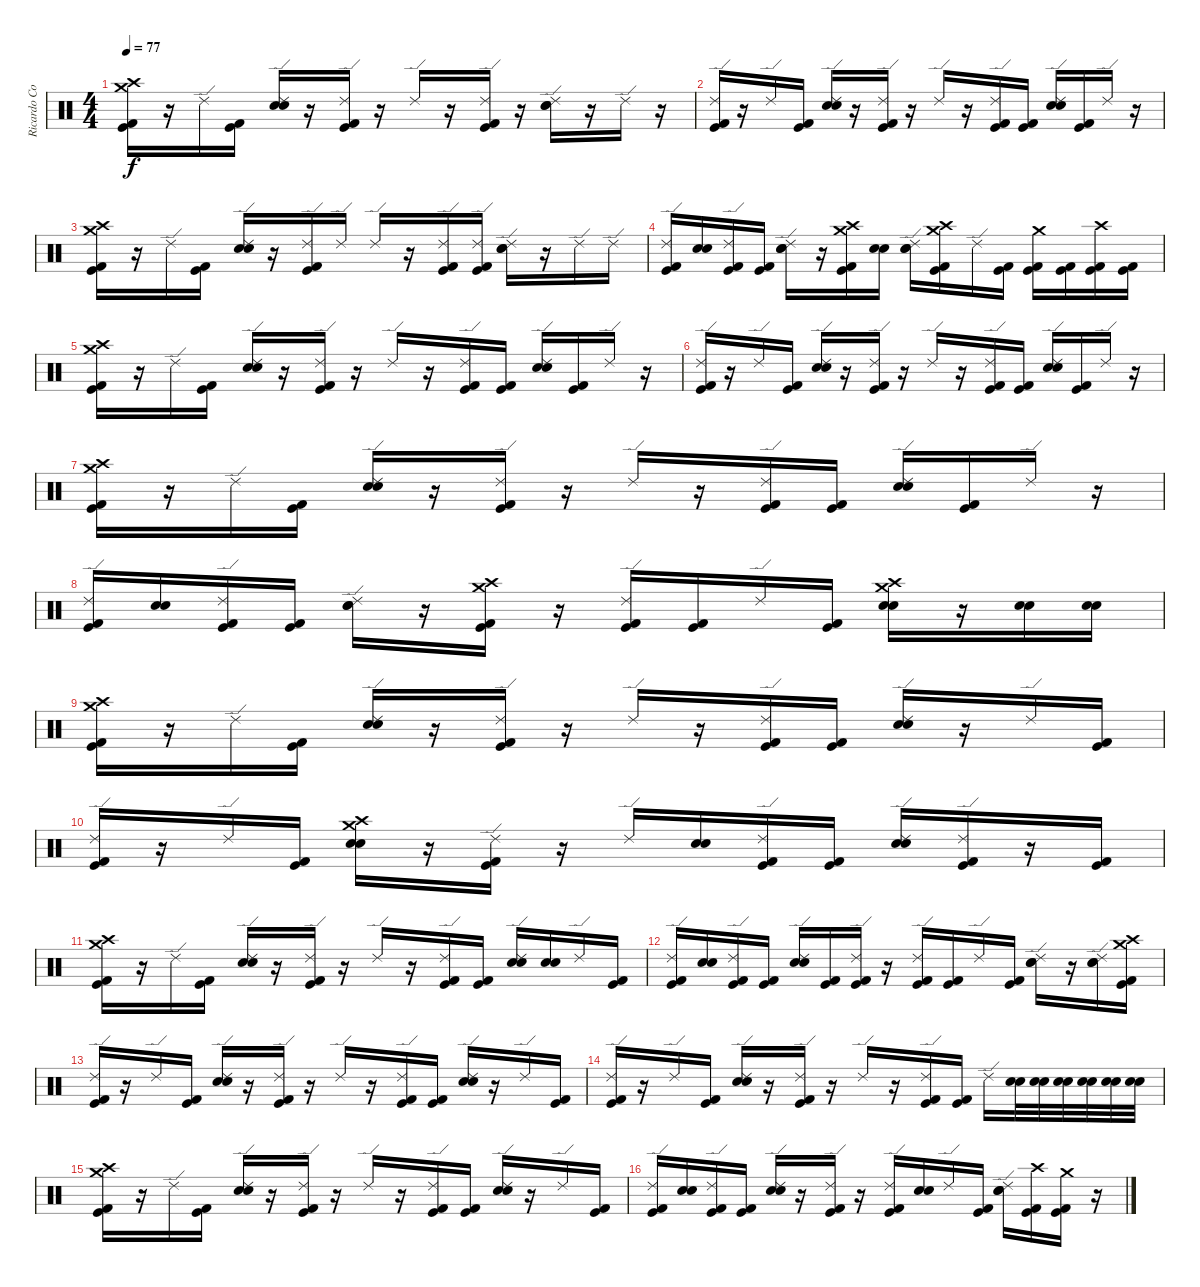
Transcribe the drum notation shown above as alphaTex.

\track ("Ricardo Confessori" "Ricardo Co") {instrument percussion}
\staff {score}
\articulation defaults
\ts (4 4)
\tempo 77
\clef neutral
\ks c
("Kick (hit) 2" "Kick (hit)" "Crash high (hit)" "Crash medium (hit)").16{dy f} r.16 "Ride (edge) 2".16 ("Kick (hit) 2" "Kick (hit)").16 ("Electric Snare (hit)" "Snare (hit) 2" "Ride (edge) 2").16 r.16 ("Kick (hit) 2" "Kick (hit)" "Ride (edge) 2").16 r.16 "Ride (edge) 2".16 r.16 ("Kick (hit) 2" "Kick (hit)" "Ride (edge) 2").16 r.16 ("Electric Snare (hit)" "Snare (hit) 2" "Ride (edge) 2").16 r.16 "Ride (edge) 2".16 r.16 |
("Kick (hit) 2" "Kick (hit)" "Ride (edge) 2").16 r.16 "Ride (edge) 2".16 ("Kick (hit) 2" "Kick (hit)").16 ("Electric Snare (hit)" "Snare (hit) 2" "Ride (edge) 2").16 r.16 ("Kick (hit) 2" "Kick (hit)" "Ride (edge) 2").16 r.16 "Ride (edge) 2".16 r.16 ("Kick (hit) 2" "Kick (hit)" "Ride (edge) 2").16 ("Kick (hit) 2" "Kick (hit)").16 ("Electric Snare (hit)" "Snare (hit) 2" "Ride (edge) 2").16 ("Kick (hit) 2" "Kick (hit)").16 "Ride (edge) 2".16 r.16 |
("Kick (hit)" "Kick (hit) 2" "Crash high (hit)" "Crash medium (hit)").16 r.16 "Ride (edge) 2".16 ("Kick (hit) 2" "Kick (hit)").16 ("Snare (hit) 2" "Electric Snare (hit)" "Ride (edge) 2").16 r.16 ("Kick (hit)" "Kick (hit) 2" "Ride (edge) 2").16 "Ride (edge) 2".16 "Ride (edge) 2".16 r.16 ("Kick (hit) 2" "Kick (hit)" "Ride (edge) 2").16 ("Kick (hit) 2" "Kick (hit)" "Ride (edge) 2").16 ("Electric Snare (hit)" "Snare (hit) 2" "Ride (edge) 2").16 r.16 "Ride (edge) 2".16 "Ride (edge) 2".16 |
("Kick (hit) 2" "Kick (hit)" "Ride (edge) 2").16 ("Electric Snare (hit)" "Snare (hit) 2").16 ("Kick (hit) 2" "Kick (hit)" "Ride (edge) 2").16 ("Kick (hit) 2" "Kick (hit)").16 ("Electric Snare (hit)" "Snare (hit) 2" "Ride (edge) 2").16 r.16 ("Crash high (hit)" "Crash medium (hit)" "Kick (hit) 2" "Kick (hit)").16 ("Electric Snare (hit)" "Snare (hit) 2").16 ("Electric Snare (hit)" "Snare (hit) 2" "Ride (edge) 2").16 ("Crash high (hit)" "Crash medium (hit)" "Kick (hit) 2" "Kick (hit)").16 "Ride (edge) 2".16 ("Kick (hit) 2" "Kick (hit)").16 ("Kick (hit) 2" "Kick (hit)" "Crash medium (hit)").16 ("Kick (hit) 2" "Kick (hit)").16 ("Kick (hit) 2" "Kick (hit)" "Crash high (hit)").16 ("Kick (hit) 2" "Kick (hit)").16 |
("Kick (hit) 2" "Kick (hit)" "Crash high (hit)" "Crash medium (hit)").16 r.16 "Ride (edge) 2".16 ("Kick (hit) 2" "Kick (hit)").16 ("Electric Snare (hit)" "Snare (hit) 2" "Ride (edge) 2").16 r.16 ("Kick (hit) 2" "Kick (hit)" "Ride (edge) 2").16 r.16 "Ride (edge) 2".16 r.16 ("Kick (hit) 2" "Kick (hit)" "Ride (edge) 2").16 ("Kick (hit) 2" "Kick (hit)").16 ("Electric Snare (hit)" "Snare (hit) 2" "Ride (edge) 2").16 ("Kick (hit) 2" "Kick (hit)").16 "Ride (edge) 2".16 r.16 |
("Kick (hit) 2" "Kick (hit)" "Ride (edge) 2").16 r.16 "Ride (edge) 2".16 ("Kick (hit) 2" "Kick (hit)").16 ("Electric Snare (hit)" "Snare (hit) 2" "Ride (edge) 2").16 r.16 ("Kick (hit) 2" "Kick (hit)" "Ride (edge) 2").16 r.16 "Ride (edge) 2".16 r.16 ("Kick (hit) 2" "Kick (hit)" "Ride (edge) 2").16 ("Kick (hit) 2" "Kick (hit)").16 ("Electric Snare (hit)" "Snare (hit) 2" "Ride (edge) 2").16 ("Kick (hit) 2" "Kick (hit)").16 "Ride (edge) 2".16 r.16 |
("Kick (hit) 2" "Kick (hit)" "Crash medium (hit)" "Crash high (hit)").16 r.16 "Ride (edge) 2".16 ("Kick (hit) 2" "Kick (hit)").16 ("Electric Snare (hit)" "Snare (hit) 2" "Ride (edge) 2").16 r.16 ("Kick (hit) 2" "Kick (hit)" "Ride (edge) 2").16 r.16 "Ride (edge) 2".16 r.16 ("Kick (hit) 2" "Kick (hit)" "Ride (edge) 2").16 ("Kick (hit) 2" "Kick (hit)").16 ("Electric Snare (hit)" "Snare (hit) 2" "Ride (edge) 2").16 ("Kick (hit) 2" "Kick (hit)").16 "Ride (edge) 2".16 r.16 |
("Kick (hit) 2" "Kick (hit)" "Ride (edge) 2").16 ("Electric Snare (hit)" "Snare (hit) 2").16 ("Kick (hit) 2" "Kick (hit)" "Ride (edge) 2").16 ("Kick (hit) 2" "Kick (hit)").16 ("Electric Snare (hit)" "Snare (hit) 2" "Ride (edge) 2").16 r.16 ("Crash medium (hit)" "Crash high (hit)" "Kick (hit) 2" "Kick (hit)").16 r.16 ("Kick (hit) 2" "Kick (hit)" "Ride (edge) 2").16 ("Kick (hit) 2" "Kick (hit)").16 "Ride (edge) 2".16 ("Kick (hit) 2" "Kick (hit)").16 ("Crash high (hit)" "Crash medium (hit)" "Electric Snare (hit)" "Snare (hit) 2").16 r.16 ("Electric Snare (hit)" "Snare (hit) 2").16 ("Electric Snare (hit)" "Snare (hit) 2").16 |
("Kick (hit) 2" "Kick (hit)" "Crash high (hit)" "Crash medium (hit)").16 r.16 "Ride (edge) 2".16 ("Kick (hit)" "Kick (hit) 2").16 ("Electric Snare (hit)" "Snare (hit) 2" "Ride (edge) 2").16 r.16 ("Kick (hit) 2" "Kick (hit)" "Ride (edge) 2").16 r.16 "Ride (edge) 2".16 r.16 ("Kick (hit) 2" "Kick (hit)" "Ride (edge) 2").16 ("Kick (hit) 2" "Kick (hit)").16 ("Electric Snare (hit)" "Snare (hit) 2" "Ride (edge) 2").16 r.16 "Ride (edge) 2".16 ("Kick (hit)" "Kick (hit) 2").16 |
("Kick (hit) 2" "Kick (hit)" "Ride (edge) 2").16 r.16 "Ride (edge) 2".16 ("Kick (hit) 2" "Kick (hit)").16 ("Crash high (hit)" "Crash medium (hit)" "Electric Snare (hit)" "Snare (hit) 2").16 r.16 ("Kick (hit) 2" "Kick (hit)" "Ride (edge) 2").16 r.16 "Ride (edge) 2".16 ("Electric Snare (hit)" "Snare (hit) 2").16 ("Kick (hit) 2" "Kick (hit)" "Ride (edge) 2").16 ("Kick (hit) 2" "Kick (hit)").16 ("Electric Snare (hit)" "Snare (hit) 2" "Ride (edge) 2").16 ("Ride (edge) 2" "Kick (hit) 2" "Kick (hit)").16 r.16 ("Kick (hit) 2" "Kick (hit)").16 |
("Crash high (hit)" "Crash medium (hit)" "Kick (hit) 2" "Kick (hit)").16 r.16 "Ride (edge) 2".16 ("Kick (hit) 2" "Kick (hit)").16 ("Electric Snare (hit)" "Snare (hit) 2" "Ride (edge) 2").16 r.16 ("Kick (hit) 2" "Kick (hit)" "Ride (edge) 2").16 r.16 "Ride (edge) 2".16 r.16 ("Kick (hit) 2" "Kick (hit)" "Ride (edge) 2").16 ("Kick (hit) 2" "Kick (hit)").16 ("Electric Snare (hit)" "Snare (hit) 2" "Ride (edge) 2").16 ("Electric Snare (hit)" "Snare (hit) 2").16 "Ride (edge) 2".16 ("Kick (hit) 2" "Kick (hit)").16 |
("Kick (hit) 2" "Kick (hit)" "Ride (edge) 2").16 ("Electric Snare (hit)" "Snare (hit) 2").16 ("Kick (hit) 2" "Kick (hit)" "Ride (edge) 2").16 ("Kick (hit) 2" "Kick (hit)").16 ("Electric Snare (hit)" "Snare (hit) 2" "Ride (edge) 2").16 ("Kick (hit) 2" "Kick (hit)").16 ("Kick (hit) 2" "Kick (hit)" "Ride (edge) 2").16 r.16 ("Kick (hit) 2" "Kick (hit)" "Ride (edge) 2").16 ("Kick (hit) 2" "Kick (hit)").16 "Ride (edge) 2".16 ("Kick (hit) 2" "Kick (hit)").16 ("Electric Snare (hit)" "Snare (hit) 2" "Ride (edge) 2").16 r.16 ("Electric Snare (hit)" "Snare (hit) 2" "Ride (edge) 2").16 ("Kick (hit) 2" "Kick (hit)" "Crash high (hit)" "Crash medium (hit)").16 |
("Kick (hit) 2" "Kick (hit)" "Ride (edge) 2").16{volume 13} r.16 "Ride (edge) 2".16{volume 13} ("Kick (hit) 2" "Kick (hit)").16{volume 13} ("Electric Snare (hit)" "Snare (hit) 2" "Ride (edge) 2").16{volume 13} r.16 ("Kick (hit)" "Kick (hit) 2" "Ride (edge) 2").16{volume 12} r.16 "Ride (edge) 2".16{volume 12} r.16 ("Kick (hit) 2" "Kick (hit)" "Ride (edge) 2").16{volume 12} ("Kick (hit) 2" "Kick (hit)").16{volume 12} ("Snare (hit) 2" "Electric Snare (hit)" "Ride (edge) 2").16{volume 12} r.16 "Ride (edge) 2".16{volume 12} ("Kick (hit) 2" "Kick (hit)").16{volume 11} |
("Kick (hit) 2" "Kick (hit)" "Ride (edge) 2").16{volume 11} r.16 "Ride (edge) 2".16{volume 11} ("Kick (hit) 2" "Kick (hit)").16{volume 11} ("Electric Snare (hit)" "Snare (hit) 2" "Ride (edge) 2").16{volume 11} r.16 ("Kick (hit) 2" "Kick (hit)" "Ride (edge) 2").16{volume 10} r.16 "Ride (edge) 2".16{volume 10} r.16 ("Kick (hit)" "Kick (hit) 2" "Ride (edge) 2").16{volume 10} ("Kick (hit) 2" "Kick (hit)").16 "Ride (edge) 2".16{volume 10} ("Electric Snare (hit)" "Snare (hit) 2").32{volume 10} ("Electric Snare (hit)" "Snare (hit) 2").32{volume 10} ("Electric Snare (hit)" "Snare (hit) 2").32 ("Electric Snare (hit)" "Snare (hit) 2").32{volume 10} ("Snare (hit) 2" "Electric Snare (hit)").32 ("Snare (hit) 2" "Electric Snare (hit)").32{volume 9} |
("Crash high (hit)" "Kick (hit)" "Kick (hit) 2" "Crash medium (hit)").16 r.16 "Ride (edge) 2".16{volume 9} ("Kick (hit) 2" "Kick (hit)").16{volume 9} ("Electric Snare (hit)" "Snare (hit) 2" "Ride (edge) 2").16{volume 9} r.16 ("Kick (hit) 2" "Kick (hit)" "Ride (edge) 2").16{volume 9} r.16 "Ride (edge) 2".16{volume 8} r.16 ("Kick (hit)" "Kick (hit) 2" "Ride (edge) 2").16{volume 8} ("Kick (hit) 2" "Kick (hit)").16{volume 8} ("Electric Snare (hit)" "Snare (hit) 2" "Ride (edge) 2").16{volume 8} r.16 "Ride (edge) 2".16{volume 8} ("Kick (hit)" "Kick (hit) 2").16{volume 8} |
("Kick (hit) 2" "Kick (hit)" "Ride (edge) 2").16{volume 8} ("Electric Snare (hit)" "Snare (hit) 2").16{volume 7} ("Kick (hit) 2" "Kick (hit)" "Ride (edge) 2").16{volume 7} ("Kick (hit) 2" "Kick (hit)").16{volume 7} ("Electric Snare (hit)" "Snare (hit) 2" "Ride (edge) 2").16{volume 6} r.16 ("Kick (hit) 2" "Kick (hit)" "Ride (edge) 2").16{volume 6} r.16 ("Kick (hit) 2" "Kick (hit)" "Ride (edge) 2").16{volume 5} ("Electric Snare (hit)" "Snare (hit) 2").16{volume 5} "Ride (edge) 2".16{volume 5} ("Kick (hit) 2" "Kick (hit)").16{volume 4} ("Electric Snare (hit)" "Snare (hit) 2" "Ride (edge) 2").16{volume 4} ("Crash high (hit)" "Kick (hit) 2" "Kick (hit)").16{volume 4} ("Crash medium (hit)" "Kick (hit) 2" "Kick (hit)").16{volume 4} r.16
